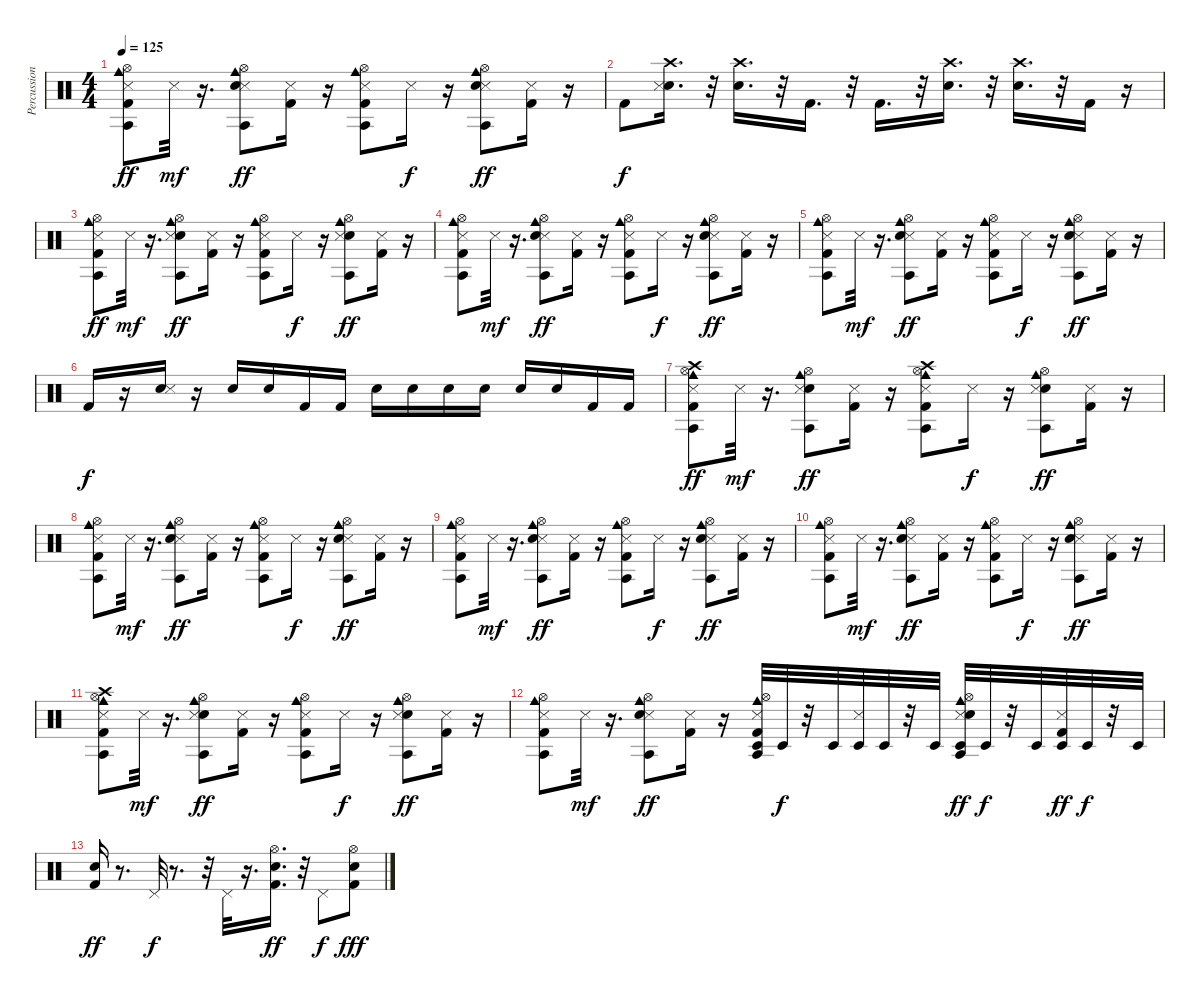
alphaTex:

\track ("Percussion" "Percussion") {instrument percussion}
\staff {score}
\articulation defaults
\ts (4 4)
\tempo 125
\clef neutral
\ks c
("Hi-Hat (open)" "Snare (side stick) 3" "Agogo tow (hit)" "Kick (hit) 2" "Cowbell medium (hit)").8{dy ff} "Snare (side stick) 3".32{dy mf} r.16{d} ("Hi-Hat (open)" "Snare (side stick) 3" "Agogo tow (hit)" "Snare (hit) 2" "Cowbell medium (hit)").8{dy ff} ("Snare (side stick) 3" "Kick (hit) 2").16 r.16 ("Hi-Hat (open)" "Snare (side stick) 3" "Agogo tow (hit)" "Kick (hit) 2" "Cowbell medium (hit)").8 "Snare (side stick) 3".16{dy f} r.16 ("Hi-Hat (open)" "Snare (side stick) 3" "Agogo tow (hit)" "Snare (hit) 2" "Cowbell medium (hit)").8{dy ff} ("Snare (side stick) 3" "Kick (hit) 2").16 r.16 |
"Kick (hit) 2".8{dy f} ("Crash high (hit)" "Snare (hit) 2" "Snare (side stick) 3").16{d} r.32 ("Snare (hit) 2" "Crash high (hit)").16{d} r.32 "Kick (hit) 2".16{d} r.32 "Kick (hit) 2".16{d} r.32 ("Snare (hit) 2" "Crash high (hit)").16{d} r.32 ("Snare (hit) 2" "Crash high (hit)").16{d} r.32 "Kick (hit) 2".16 r.16 |
("Hi-Hat (open)" "Kick (hit) 2" "Agogo tow (hit)" "Cowbell medium (hit)" "Snare (side stick) 3").8{dy ff} "Snare (side stick) 3".32{dy mf} r.16{d} ("Hi-Hat (open)" "Snare (hit) 2" "Agogo tow (hit)" "Cowbell medium (hit)" "Snare (side stick) 3").8{dy ff} ("Kick (hit) 2" "Snare (side stick) 3").16 r.16 ("Hi-Hat (open)" "Kick (hit) 2" "Agogo tow (hit)" "Cowbell medium (hit)" "Snare (side stick) 3").8 "Snare (side stick) 3".16{dy f} r.16 ("Hi-Hat (open)" "Snare (hit) 2" "Agogo tow (hit)" "Cowbell medium (hit)" "Snare (side stick) 3").8{dy ff} ("Kick (hit) 2" "Snare (side stick) 3").16 r.16 |
("Hi-Hat (open)" "Cowbell medium (hit)" "Snare (side stick) 3" "Agogo tow (hit)" "Kick (hit) 2").8 "Snare (side stick) 3".32{dy mf} r.16{d} ("Hi-Hat (open)" "Cowbell medium (hit)" "Snare (side stick) 3" "Agogo tow (hit)" "Snare (hit) 2").8{dy ff} ("Snare (side stick) 3" "Kick (hit) 2").16 r.16 ("Hi-Hat (open)" "Cowbell medium (hit)" "Snare (side stick) 3" "Agogo tow (hit)" "Kick (hit) 2").8 "Snare (side stick) 3".16{dy f} r.16 ("Hi-Hat (open)" "Cowbell medium (hit)" "Snare (side stick) 3" "Agogo tow (hit)" "Snare (hit) 2").8{dy ff} ("Snare (side stick) 3" "Kick (hit) 2").16 r.16 |
("Hi-Hat (open)" "Snare (side stick) 3" "Agogo tow (hit)" "Kick (hit) 2" "Cowbell medium (hit)").8 "Snare (side stick) 3".32{dy mf} r.16{d} ("Hi-Hat (open)" "Snare (side stick) 3" "Agogo tow (hit)" "Snare (hit) 2" "Cowbell medium (hit)").8{dy ff} ("Snare (side stick) 3" "Kick (hit) 2").16 r.16 ("Hi-Hat (open)" "Snare (side stick) 3" "Agogo tow (hit)" "Kick (hit) 2" "Cowbell medium (hit)").8 "Snare (side stick) 3".16{dy f} r.16 ("Hi-Hat (open)" "Snare (side stick) 3" "Agogo tow (hit)" "Snare (hit) 2" "Cowbell medium (hit)").8{dy ff} ("Snare (side stick) 3" "Kick (hit) 2").16 r.16 |
"Kick (hit) 2".16{dy f} r.16 ("Snare (hit) 2" "Snare (side stick) 3").16 r.16 "Snare (hit) 2".16 "Snare (hit) 2".16 "Kick (hit) 2".16 "Kick (hit) 2".16 "Snare (hit) 2".16 "Snare (hit) 2".16 "Electric Snare (hit)".16 "Electric Snare (hit)".16 "Snare (hit) 2".16 "Snare (hit) 2".16 "Kick (hit) 2".16 "Kick (hit) 2".16 |
("Hi-Hat (open)" "Kick (hit) 2" "Agogo tow (hit)" "Crash high (hit)" "Cowbell medium (hit)" "Snare (side stick) 3").8{dy ff} "Snare (side stick) 3".32{dy mf} r.16{d} ("Hi-Hat (open)" "Snare (hit) 2" "Agogo tow (hit)" "Cowbell medium (hit)" "Snare (side stick) 3").8{dy ff} ("Kick (hit) 2" "Snare (side stick) 3").16 r.16 ("Crash high (hit)" "Hi-Hat (open)" "Kick (hit) 2" "Agogo tow (hit)" "Cowbell medium (hit)" "Snare (side stick) 3").8 "Snare (side stick) 3".16{dy f} r.16 ("Hi-Hat (open)" "Snare (hit) 2" "Agogo tow (hit)" "Cowbell medium (hit)" "Snare (side stick) 3").8{dy ff} ("Kick (hit) 2" "Snare (side stick) 3").16 r.16 |
("Hi-Hat (open)" "Cowbell medium (hit)" "Snare (side stick) 3" "Agogo tow (hit)" "Kick (hit) 2").8 "Snare (side stick) 3".32{dy mf} r.16{d} ("Hi-Hat (open)" "Cowbell medium (hit)" "Snare (side stick) 3" "Agogo tow (hit)" "Snare (hit) 2").8{dy ff} ("Snare (side stick) 3" "Kick (hit) 2").16 r.16 ("Hi-Hat (open)" "Cowbell medium (hit)" "Snare (side stick) 3" "Agogo tow (hit)" "Kick (hit) 2").8 "Snare (side stick) 3".16{dy f} r.16 ("Hi-Hat (open)" "Cowbell medium (hit)" "Snare (side stick) 3" "Agogo tow (hit)" "Snare (hit) 2").8{dy ff} ("Snare (side stick) 3" "Kick (hit) 2").16 r.16 |
("Hi-Hat (open)" "Snare (side stick) 3" "Agogo tow (hit)" "Kick (hit) 2" "Cowbell medium (hit)").8 "Snare (side stick) 3".32{dy mf} r.16{d} ("Hi-Hat (open)" "Snare (side stick) 3" "Agogo tow (hit)" "Snare (hit) 2" "Cowbell medium (hit)").8{dy ff} ("Snare (side stick) 3" "Kick (hit) 2").16 r.16 ("Hi-Hat (open)" "Snare (side stick) 3" "Agogo tow (hit)" "Kick (hit) 2" "Cowbell medium (hit)").8 "Snare (side stick) 3".16{dy f} r.16 ("Hi-Hat (open)" "Snare (side stick) 3" "Agogo tow (hit)" "Snare (hit) 2" "Cowbell medium (hit)").8{dy ff} ("Snare (side stick) 3" "Kick (hit) 2").16 r.16 |
("Hi-Hat (open)" "Snare (side stick) 3" "Agogo tow (hit)" "Kick (hit) 2" "Cowbell medium (hit)").8 "Snare (side stick) 3".32{dy mf} r.16{d} ("Hi-Hat (open)" "Snare (side stick) 3" "Agogo tow (hit)" "Snare (hit) 2" "Cowbell medium (hit)").8{dy ff} ("Snare (side stick) 3" "Kick (hit) 2").16 r.16 ("Hi-Hat (open)" "Snare (side stick) 3" "Agogo tow (hit)" "Kick (hit) 2" "Cowbell medium (hit)").8 "Snare (side stick) 3".16{dy f} r.16 ("Hi-Hat (open)" "Snare (side stick) 3" "Agogo tow (hit)" "Snare (hit) 2" "Cowbell medium (hit)").8{dy ff} ("Snare (side stick) 3" "Kick (hit) 2").16 r.16 |
("Hi-Hat (open)" "Kick (hit) 2" "Agogo tow (hit)" "Crash high (hit)" "Cowbell medium (hit)" "Snare (side stick) 3").8 "Snare (side stick) 3".32{dy mf} r.16{d} ("Hi-Hat (open)" "Snare (hit) 2" "Agogo tow (hit)" "Cowbell medium (hit)" "Snare (side stick) 3").8{dy ff} ("Kick (hit) 2" "Snare (side stick) 3").16 r.16 ("Hi-Hat (open)" "Kick (hit) 2" "Agogo tow (hit)" "Cowbell medium (hit)" "Snare (side stick) 3").8 "Snare (side stick) 3".16{dy f} r.16 ("Hi-Hat (open)" "Snare (hit) 2" "Agogo tow (hit)" "Cowbell medium (hit)" "Snare (side stick) 3").8{dy ff} ("Kick (hit) 2" "Snare (side stick) 3").16 r.16 |
("Hi-Hat (open)" "Cowbell medium (hit)" "Snare (side stick) 3" "Agogo tow (hit)" "Kick (hit) 2").8 "Snare (side stick) 3".32{dy mf} r.16{d} ("Hi-Hat (open)" "Cowbell medium (hit)" "Snare (side stick) 3" "Agogo tow (hit)" "Snare (hit) 2").8{dy ff} ("Snare (side stick) 3" "Kick (hit) 2").16 r.16 ("Timbale low (hit)" "Hi-Hat (open)" "Cowbell medium (hit)" "Snare (side stick) 3" "Agogo tow (hit)" "Kick (hit) 2").32 "Timbale low (hit)".32{dy f} r.32 "Timbale low (hit)".32 ("Timbale low (hit)" "Snare (side stick) 3").32 "Timbale low (hit)".32 r.32 "Timbale low (hit)".32 ("Hi-Hat (open)" "Cowbell medium (hit)" "Snare (side stick) 3" "Agogo tow (hit)" "Snare (hit) 2" "Timbale low (hit)").32{dy ff} "Timbale low (hit)".32{dy f} r.32 "Timbale low (hit)".32 ("Timbale low (hit)" "Snare (side stick) 3" "Kick (hit) 2").32{dy ff} "Timbale low (hit)".32{dy f} r.32 "Timbale low (hit)".32 |
("Kick (hit) 2" "Snare (hit) 2").16{dy ff} r.8{d} "Pedal Hi-Hat (hit)".32{dy f} r.8{d} r.32 "Pedal Hi-Hat (hit)".32 r.16{d} ("Snare (hit) 2" "Kick (hit) 2" "Hi-Hat (open)").16{d dy ff} r.32 "Pedal Hi-Hat (hit)".8{dy f} ("Kick (hit) 2" "Snare (hit) 2" "Hi-Hat (open)").8{dy fff}
